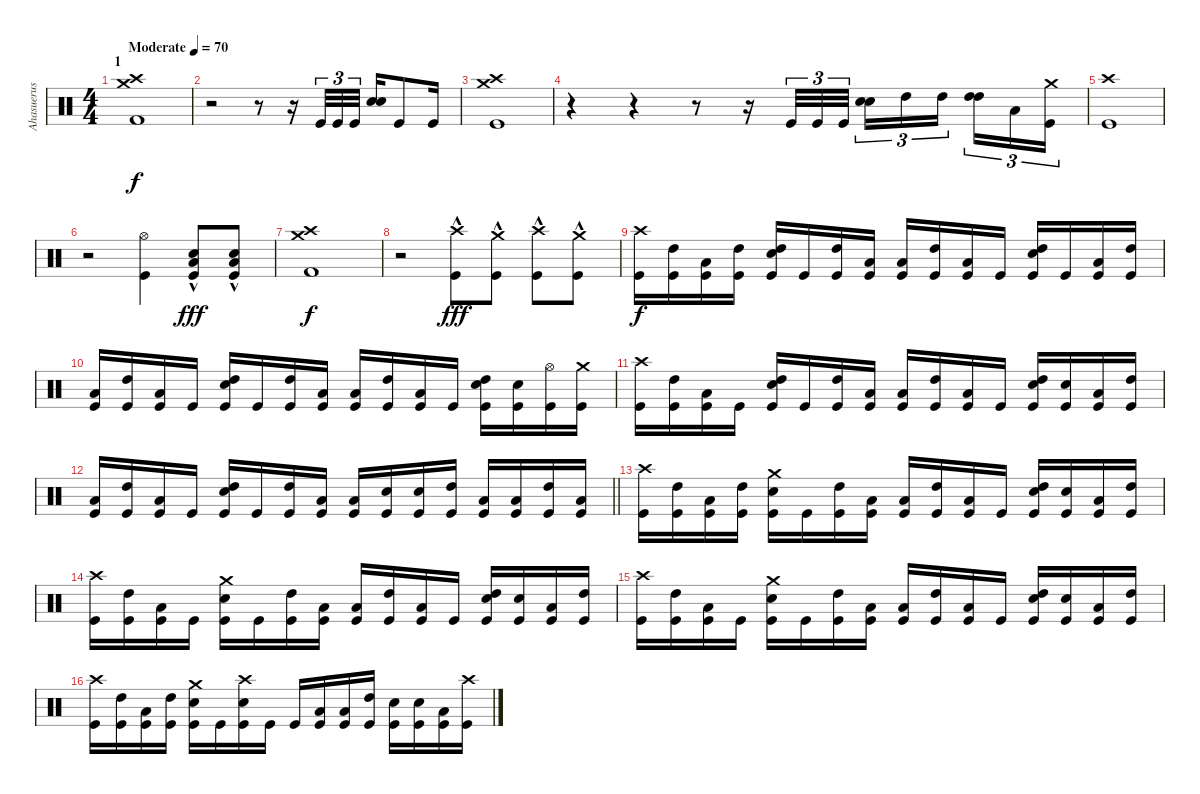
\track ("Ahasuerus" "Ahasuerus") {instrument percussion}
\staff {score}
\articulation defaults
\ts (4 4)
\section ("" "1")
\tempo (70 "Moderate")
\clef neutral
\ks c
("Crash high (hit)" "Crash medium (hit)" "Kick (hit) 2").1{dy f} |
r.2 r.8 r.16 "Kick (hit)".32{tu (3 2)} "Kick (hit)".32{tu (3 2)} "Kick (hit)".32{tu (3 2)} ("Electric Snare (hit)" "Electric Snare (hit)").16{bu 240} "Kick (hit)".8 "Kick (hit)".16 |
("Crash high (hit)" "Crash medium (hit)" "Kick (hit)").1 |
r.4 r.4 r.8 r.16 "Kick (hit)".32{tu (3 2)} "Kick (hit)".32{tu (3 2)} "Kick (hit)".32{tu (3 2)} ("Electric Snare (hit)" "Electric Snare (hit)").16{tu (3 2) bu 240} "High Tom (hit)".16{tu (3 2)} "High Tom (hit)".16{tu (3 2) beam splitsecondary} ("High Tom (hit)" "High Tom (hit)").16{tu (3 2) bu 240} "Low Tom (hit)".16{tu (3 2)} ("Crash medium (hit)" "Kick (hit)").16{tu (3 2)} |
("Crash high (hit)" "Kick (hit)").1 |
r.2 ("Hi-Hat (open)" "Kick (hit)").4 ("Electric Snare (hit)" "Low Floor Tom (hit)"{hac} "Kick (hit)").8{dy fff} ("Electric Snare (hit)" "Low Floor Tom (hit)"{hac} "Kick (hit)").8 |
("Crash high (hit)" "Crash medium (hit)" "Kick (hit) 2").1{dy f} |
r.2 ("Crash high (hit)" "Kick (hit)"{hac}).8{dy fff} ("Crash medium (hit)" "Kick (hit)"{hac}).8 ("Crash high (hit)" "Kick (hit)"{hac}).8 ("Crash medium (hit)" "Kick (hit)"{hac}).8 |
("Crash high (hit)" "Kick (hit)").16{dy f} ("High Tom (hit)" "Kick (hit)").16 ("Low Tom (hit)" "Kick (hit)").16 ("High Tom (hit)" "Kick (hit)").16 ("High Tom (hit)" "Electric Snare (hit)" "Kick (hit)").16 "Kick (hit)".16 ("High Tom (hit)" "Kick (hit)").16 ("Low Tom (hit)" "Kick (hit)").16 ("Low Tom (hit)" "Kick (hit)").16 ("High Tom (hit)" "Kick (hit)").16 ("Low Tom (hit)" "Kick (hit)").16 "Kick (hit)".16 ("High Tom (hit)" "Electric Snare (hit)" "Kick (hit)").16 "Kick (hit)".16 ("Low Tom (hit)" "Kick (hit)").16 ("High Tom (hit)" "Kick (hit)").16 |
("Low Tom (hit)" "Kick (hit)").16 ("High Tom (hit)" "Kick (hit)").16 ("Low Tom (hit)" "Kick (hit)").16 "Kick (hit)".16 ("High Tom (hit)" "Electric Snare (hit)" "Kick (hit)").16 "Kick (hit)".16 ("High Tom (hit)" "Kick (hit)").16 ("Low Tom (hit)" "Kick (hit)").16 ("Low Tom (hit)" "Kick (hit)").16 ("High Tom (hit)" "Kick (hit)").16 ("Low Tom (hit)" "Kick (hit)").16 "Kick (hit)".16 ("High Tom (hit)" "Electric Snare (hit)" "Kick (hit)").16 ("Electric Snare (hit)" "Kick (hit)").16 ("Hi-Hat (open)" "Kick (hit)").16 ("Crash medium (hit)" "Kick (hit)").16 |
("Crash high (hit)" "Kick (hit)").16 ("High Tom (hit)" "Kick (hit)").16 ("Low Tom (hit)" "Kick (hit)").16 "Kick (hit)".16 ("High Tom (hit)" "Electric Snare (hit)" "Kick (hit)").16 "Kick (hit)".16 ("High Tom (hit)" "Kick (hit)").16 ("Low Tom (hit)" "Kick (hit)").16 ("Low Tom (hit)" "Kick (hit)").16 ("High Tom (hit)" "Kick (hit)").16 ("Low Tom (hit)" "Kick (hit)").16 "Kick (hit)".16 ("High Tom (hit)" "Electric Snare (hit)" "Kick (hit)").16 ("Electric Snare (hit)" "Kick (hit)").16 ("Low Tom (hit)" "Kick (hit)").16 ("High Tom (hit)" "Kick (hit)").16 |
\barLineRight lightlight
("Low Tom (hit)" "Kick (hit)").16 ("High Tom (hit)" "Kick (hit)").16 ("Low Tom (hit)" "Kick (hit)").16 "Kick (hit)".16 ("High Tom (hit)" "Electric Snare (hit)" "Kick (hit)").16 "Kick (hit)".16 ("High Tom (hit)" "Kick (hit)").16 ("Low Tom (hit)" "Kick (hit)").16 ("Low Tom (hit)" "Kick (hit)").16 ("Electric Snare (hit)" "Kick (hit)").16 ("Electric Snare (hit)" "Kick (hit)").16 ("High Tom (hit)" "Kick (hit)").16 ("Low Tom (hit)" "Kick (hit)").16 ("Low Tom (hit)" "Kick (hit)").16 ("High Tom (hit)" "Kick (hit)").16 ("Low Tom (hit)" "Kick (hit)").16 |
("Crash high (hit)" "Kick (hit)").16 ("High Tom (hit)" "Kick (hit)").16 ("Low Tom (hit)" "Kick (hit)").16 ("High Tom (hit)" "Kick (hit)").16 ("Crash medium (hit)" "Electric Snare (hit)" "Kick (hit)").16 "Kick (hit)".16 ("High Tom (hit)" "Kick (hit)").16 ("Low Tom (hit)" "Kick (hit)").16 ("Low Tom (hit)" "Kick (hit)").16 ("High Tom (hit)" "Kick (hit)").16 ("Low Tom (hit)" "Kick (hit)").16 "Kick (hit)".16 ("High Tom (hit)" "Electric Snare (hit)" "Kick (hit)").16 ("Electric Snare (hit)" "Kick (hit)").16 ("Low Tom (hit)" "Kick (hit)").16 ("High Tom (hit)" "Kick (hit)").16 |
("Crash high (hit)" "Kick (hit)").16 ("High Tom (hit)" "Kick (hit)").16 ("Low Tom (hit)" "Kick (hit)").16 "Kick (hit)".16 ("Crash medium (hit)" "Electric Snare (hit)" "Kick (hit)").16 "Kick (hit)".16 ("High Tom (hit)" "Kick (hit)").16 ("Low Tom (hit)" "Kick (hit)").16 ("Low Tom (hit)" "Kick (hit)").16 ("High Tom (hit)" "Kick (hit)").16 ("Low Tom (hit)" "Kick (hit)").16 "Kick (hit)".16 ("High Tom (hit)" "Electric Snare (hit)" "Kick (hit)").16 ("Electric Snare (hit)" "Kick (hit)").16 ("Low Tom (hit)" "Kick (hit)").16 ("High Tom (hit)" "Kick (hit)").16 |
("Crash high (hit)" "Kick (hit)").16 ("High Tom (hit)" "Kick (hit)").16 ("Low Tom (hit)" "Kick (hit)").16 "Kick (hit)".16 ("Crash medium (hit)" "Electric Snare (hit)" "Kick (hit)").16 "Kick (hit)".16 ("High Tom (hit)" "Kick (hit)").16 ("Low Tom (hit)" "Kick (hit)").16 ("Low Tom (hit)" "Kick (hit)").16 ("High Tom (hit)" "Kick (hit)").16 ("Low Tom (hit)" "Kick (hit)").16 "Kick (hit)".16 ("High Tom (hit)" "Electric Snare (hit)" "Kick (hit)").16 ("Electric Snare (hit)" "Kick (hit)").16 ("Low Tom (hit)" "Kick (hit)").16 ("High Tom (hit)" "Kick (hit)").16 |
("Crash high (hit)" "Kick (hit)").16 ("High Tom (hit)" "Kick (hit)").16 ("Low Tom (hit)" "Kick (hit)").16 ("High Tom (hit)" "Kick (hit)").16 ("Crash medium (hit)" "Electric Snare (hit)" "Kick (hit)").16 "Kick (hit)".16 ("Crash high (hit)" "Electric Snare (hit)" "Kick (hit)").16 "Kick (hit)".16 "Kick (hit)".16 ("Low Tom (hit)" "Kick (hit)").16 ("Low Tom (hit)" "Kick (hit)").16 ("High Tom (hit)" "Kick (hit)").16 ("Electric Snare (hit)" "Kick (hit)").16 ("Electric Snare (hit)" "Kick (hit)").16 ("Low Tom (hit)" "Kick (hit)").16 ("Crash high (hit)" "Kick (hit)").16
